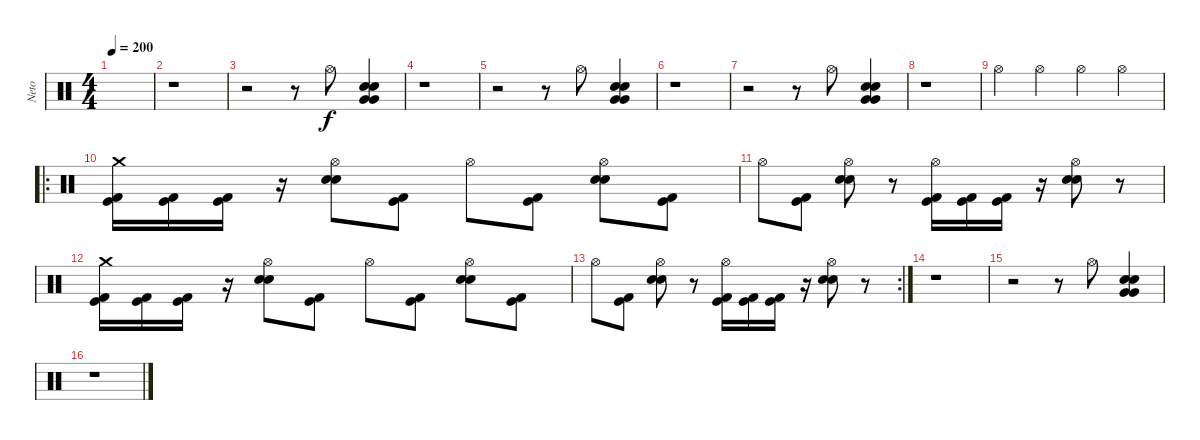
\track ("Neto" "Neto") {instrument percussion}
\staff {score}
\articulation defaults
\ts (4 4)
\tempo 200
\clef neutral
\ks c
|
r.1 |
r.2 r.8 "Hi-Hat (open)".8 ("Snare (hit) 2" "Snare (hit) 2" "Very Low Tom (hit)" "Very Low Tom (hit)").4 |
r.1 |
r.2 r.8 "Hi-Hat (open)".8 ("Snare (hit) 2" "Snare (hit) 2" "Very Low Tom (hit)" "Very Low Tom (hit)").4 |
r.1 |
r.2 r.8 "Hi-Hat (open)".8 ("Snare (hit) 2" "Snare (hit) 2" "Very Low Tom (hit)" "Very Low Tom (hit)").4 |
r.1 |
"Hi-Hat (open)".4 "Hi-Hat (open)".4 "Hi-Hat (open)".4 "Hi-Hat (open)".4 |
\ro
("Crash medium (hit)" "Kick (hit)" "Kick (hit) 2").16 ("Kick (hit)" "Kick (hit) 2").16 ("Kick (hit)" "Kick (hit) 2").16 r.16 ("Hi-Hat (open)" "Snare (hit) 2" "Snare (hit) 2").8 ("Kick (hit) 2" "Kick (hit)").8 "Hi-Hat (open)".8 ("Kick (hit)" "Kick (hit) 2").8 ("Hi-Hat (open)" "Snare (hit) 2" "Snare (hit) 2").8 ("Kick (hit) 2" "Kick (hit)").8 |
"Hi-Hat (open)".8 ("Kick (hit)" "Kick (hit) 2").8 ("Hi-Hat (open)" "Snare (hit) 2" "Snare (hit) 2").8 r.8 ("Hi-Hat (open)" "Kick (hit)" "Kick (hit) 2").16 ("Kick (hit)" "Kick (hit) 2").16 ("Kick (hit)" "Kick (hit) 2").16 r.16 ("Hi-Hat (open)" "Snare (hit) 2" "Snare (hit) 2").8 r.8 |
("Crash medium (hit)" "Kick (hit)" "Kick (hit) 2").16 ("Kick (hit)" "Kick (hit) 2").16 ("Kick (hit)" "Kick (hit) 2").16 r.16 ("Hi-Hat (open)" "Snare (hit) 2" "Snare (hit) 2").8 ("Kick (hit) 2" "Kick (hit)").8 "Hi-Hat (open)".8 ("Kick (hit)" "Kick (hit) 2").8 ("Hi-Hat (open)" "Snare (hit) 2" "Snare (hit) 2").8 ("Kick (hit) 2" "Kick (hit)").8 |
\rc 2 "Hi-Hat (open)".8
("Kick (hit)" "Kick (hit) 2").8 ("Hi-Hat (open)" "Snare (hit) 2" "Snare (hit) 2").8 r.8 ("Hi-Hat (open)" "Kick (hit)" "Kick (hit) 2").16 ("Kick (hit)" "Kick (hit) 2").16 ("Kick (hit)" "Kick (hit) 2").16 r.16 ("Hi-Hat (open)" "Snare (hit) 2" "Snare (hit) 2").8 r.8 |
r.1 |
r.2 r.8 "Hi-Hat (open)".8 ("Snare (hit) 2" "Snare (hit) 2" "Very Low Tom (hit)" "Very Low Tom (hit)").4 |
r.1
